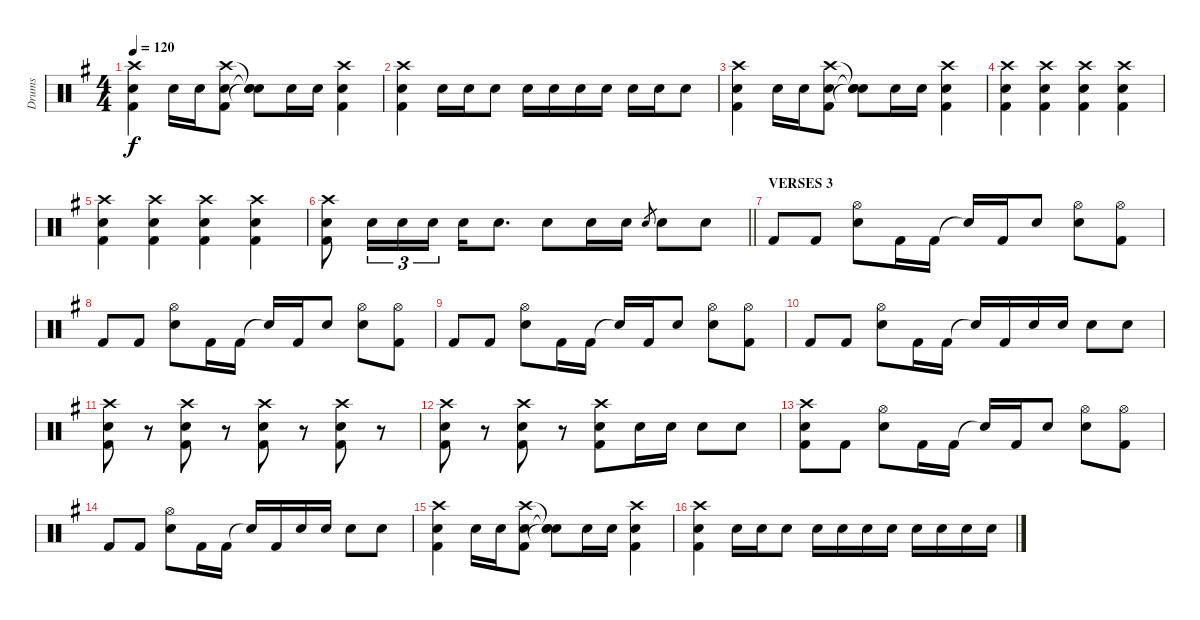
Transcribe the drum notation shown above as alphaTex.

\track ("Drums" "Drums") {instrument percussion}
\staff {score}
\articulation defaults
\ts (4 4)
\tempo 120
\clef neutral
\ks eminor
("Crash high (hit)" "Electric Snare (hit)" "Kick (hit) 2").4{dy f} "Electric Snare (hit)".16 "Electric Snare (hit)".16 ("Crash high (hit)" "Electric Snare (hit)" "Kick (hit) 2").8 ("Snare (hit)"{t} "Snare (hit)"{t} "Snare (hit)"{t}).8 "Electric Snare (hit)".16 "Electric Snare (hit)".16 ("Crash high (hit)" "Electric Snare (hit)" "Kick (hit) 2").4 |
("Crash high (hit)" "Electric Snare (hit)" "Kick (hit) 2").4 "Electric Snare (hit)".16 "Electric Snare (hit)".16 "Electric Snare (hit)".8 "Electric Snare (hit)".16 "Electric Snare (hit)".16 "Electric Snare (hit)".16 "Electric Snare (hit)".16 "Electric Snare (hit)".16 "Electric Snare (hit)".16 "Electric Snare (hit)".8 |
("Crash high (hit)" "Electric Snare (hit)" "Kick (hit) 2").4 "Electric Snare (hit)".16 "Electric Snare (hit)".16 ("Crash high (hit)" "Electric Snare (hit)" "Kick (hit) 2").8 ("Snare (hit)"{t} "Snare (hit)"{t} "Snare (hit)"{t}).8 "Electric Snare (hit)".16 "Electric Snare (hit)".16 ("Crash high (hit)" "Electric Snare (hit)" "Kick (hit) 2").4 |
("Crash high (hit)" "Electric Snare (hit)" "Kick (hit) 2").4 ("Crash high (hit)" "Electric Snare (hit)" "Kick (hit) 2").4 ("Crash high (hit)" "Electric Snare (hit)" "Kick (hit) 2").4 ("Crash high (hit)" "Electric Snare (hit)" "Kick (hit) 2").4 |
("Crash high (hit)" "Electric Snare (hit)" "Kick (hit) 2").4 ("Crash high (hit)" "Electric Snare (hit)" "Kick (hit) 2").4 ("Crash high (hit)" "Electric Snare (hit)" "Kick (hit) 2").4 ("Crash high (hit)" "Electric Snare (hit)" "Kick (hit) 2").4 |
\barLineRight lightlight
("Crash high (hit)" "Electric Snare (hit)" "Kick (hit) 2").8 "Electric Snare (hit)".16{tu (3 2)} "Electric Snare (hit)".16{tu (3 2)} "Electric Snare (hit)".16{tu (3 2)} "Electric Snare (hit)".16 "Electric Snare (hit)".8{d} "Electric Snare (hit)".8 "Electric Snare (hit)".16 "Electric Snare (hit)".16 "Electric Snare (hit)".8{gr} "Electric Snare (hit)".8 "Electric Snare (hit)".8 |
\section ("" "VERSES 3")
"Kick (hit) 2".8 "Kick (hit) 2".8 ("Hi-Hat (open)" "Electric Snare (hit)").8 "Kick (hit) 2".16 "Kick (hit) 2".16 "Snare (hit)"{t}.16 "Kick (hit) 2".16 "Electric Snare (hit)".8 ("Hi-Hat (open)" "Electric Snare (hit)").8 ("Hi-Hat (open)" "Kick (hit) 2").8 |
"Kick (hit) 2".8 "Kick (hit) 2".8 ("Hi-Hat (open)" "Electric Snare (hit)").8 "Kick (hit) 2".16 "Kick (hit) 2".16 "Snare (hit)"{t}.16 "Kick (hit) 2".16 "Electric Snare (hit)".8 ("Hi-Hat (open)" "Electric Snare (hit)").8 ("Hi-Hat (open)" "Kick (hit) 2").8 |
"Kick (hit) 2".8 "Kick (hit) 2".8 ("Hi-Hat (open)" "Electric Snare (hit)").8 "Kick (hit) 2".16 "Kick (hit) 2".16 "Snare (hit)"{t}.16 "Kick (hit) 2".16 "Electric Snare (hit)".8 ("Hi-Hat (open)" "Electric Snare (hit)").8 ("Hi-Hat (open)" "Kick (hit) 2").8 |
"Kick (hit) 2".8 "Kick (hit) 2".8 ("Hi-Hat (open)" "Electric Snare (hit)").8 "Kick (hit) 2".16 "Kick (hit) 2".16 "Snare (hit)"{t}.16 "Kick (hit) 2".16 "Electric Snare (hit)".16 "Electric Snare (hit)".16 "Electric Snare (hit)".8 "Electric Snare (hit)".8 |
("Crash high (hit)" "Electric Snare (hit)" "Kick (hit) 2").8 r.8 ("Crash high (hit)" "Electric Snare (hit)" "Kick (hit) 2").8 r.8 ("Crash high (hit)" "Electric Snare (hit)" "Kick (hit) 2").8 r.8 ("Crash high (hit)" "Electric Snare (hit)" "Kick (hit) 2").8 r.8 |
("Crash high (hit)" "Electric Snare (hit)" "Kick (hit) 2").8 r.8 ("Crash high (hit)" "Electric Snare (hit)" "Kick (hit) 2").8 r.8 ("Crash high (hit)" "Electric Snare (hit)" "Kick (hit) 2").8 "Electric Snare (hit)".16 "Electric Snare (hit)".16 "Electric Snare (hit)".8 "Electric Snare (hit)".8 |
("Crash high (hit)" "Electric Snare (hit)" "Kick (hit) 2").8 "Kick (hit) 2".8 ("Hi-Hat (open)" "Electric Snare (hit)").8 "Kick (hit) 2".16 "Kick (hit) 2".16 "Snare (hit)"{t}.16 "Kick (hit) 2".16 "Electric Snare (hit)".8 ("Hi-Hat (open)" "Electric Snare (hit)").8 ("Hi-Hat (open)" "Kick (hit) 2").8 |
"Kick (hit) 2".8 "Kick (hit) 2".8 ("Hi-Hat (open)" "Electric Snare (hit)").8 "Kick (hit) 2".16 "Kick (hit) 2".16 "Snare (hit)"{t}.16 "Kick (hit) 2".16 "Electric Snare (hit)".16 "Electric Snare (hit)".16 "Electric Snare (hit)".8 "Electric Snare (hit)".8 |
("Crash high (hit)" "Electric Snare (hit)" "Kick (hit) 2").4 "Electric Snare (hit)".16 "Electric Snare (hit)".16 ("Crash high (hit)" "Electric Snare (hit)" "Kick (hit) 2").8 ("Snare (hit)"{t} "Snare (hit)"{t} "Snare (hit)"{t}).8 "Electric Snare (hit)".16 "Electric Snare (hit)".16 ("Crash high (hit)" "Electric Snare (hit)" "Kick (hit) 2").4 |
("Crash high (hit)" "Electric Snare (hit)" "Kick (hit) 2").4 "Electric Snare (hit)".16 "Electric Snare (hit)".16 "Electric Snare (hit)".8 "Electric Snare (hit)".16 "Electric Snare (hit)".16 "Electric Snare (hit)".16 "Electric Snare (hit)".16 "Electric Snare (hit)".16 "Electric Snare (hit)".16 "Electric Snare (hit)".16 "Electric Snare (hit)".16
